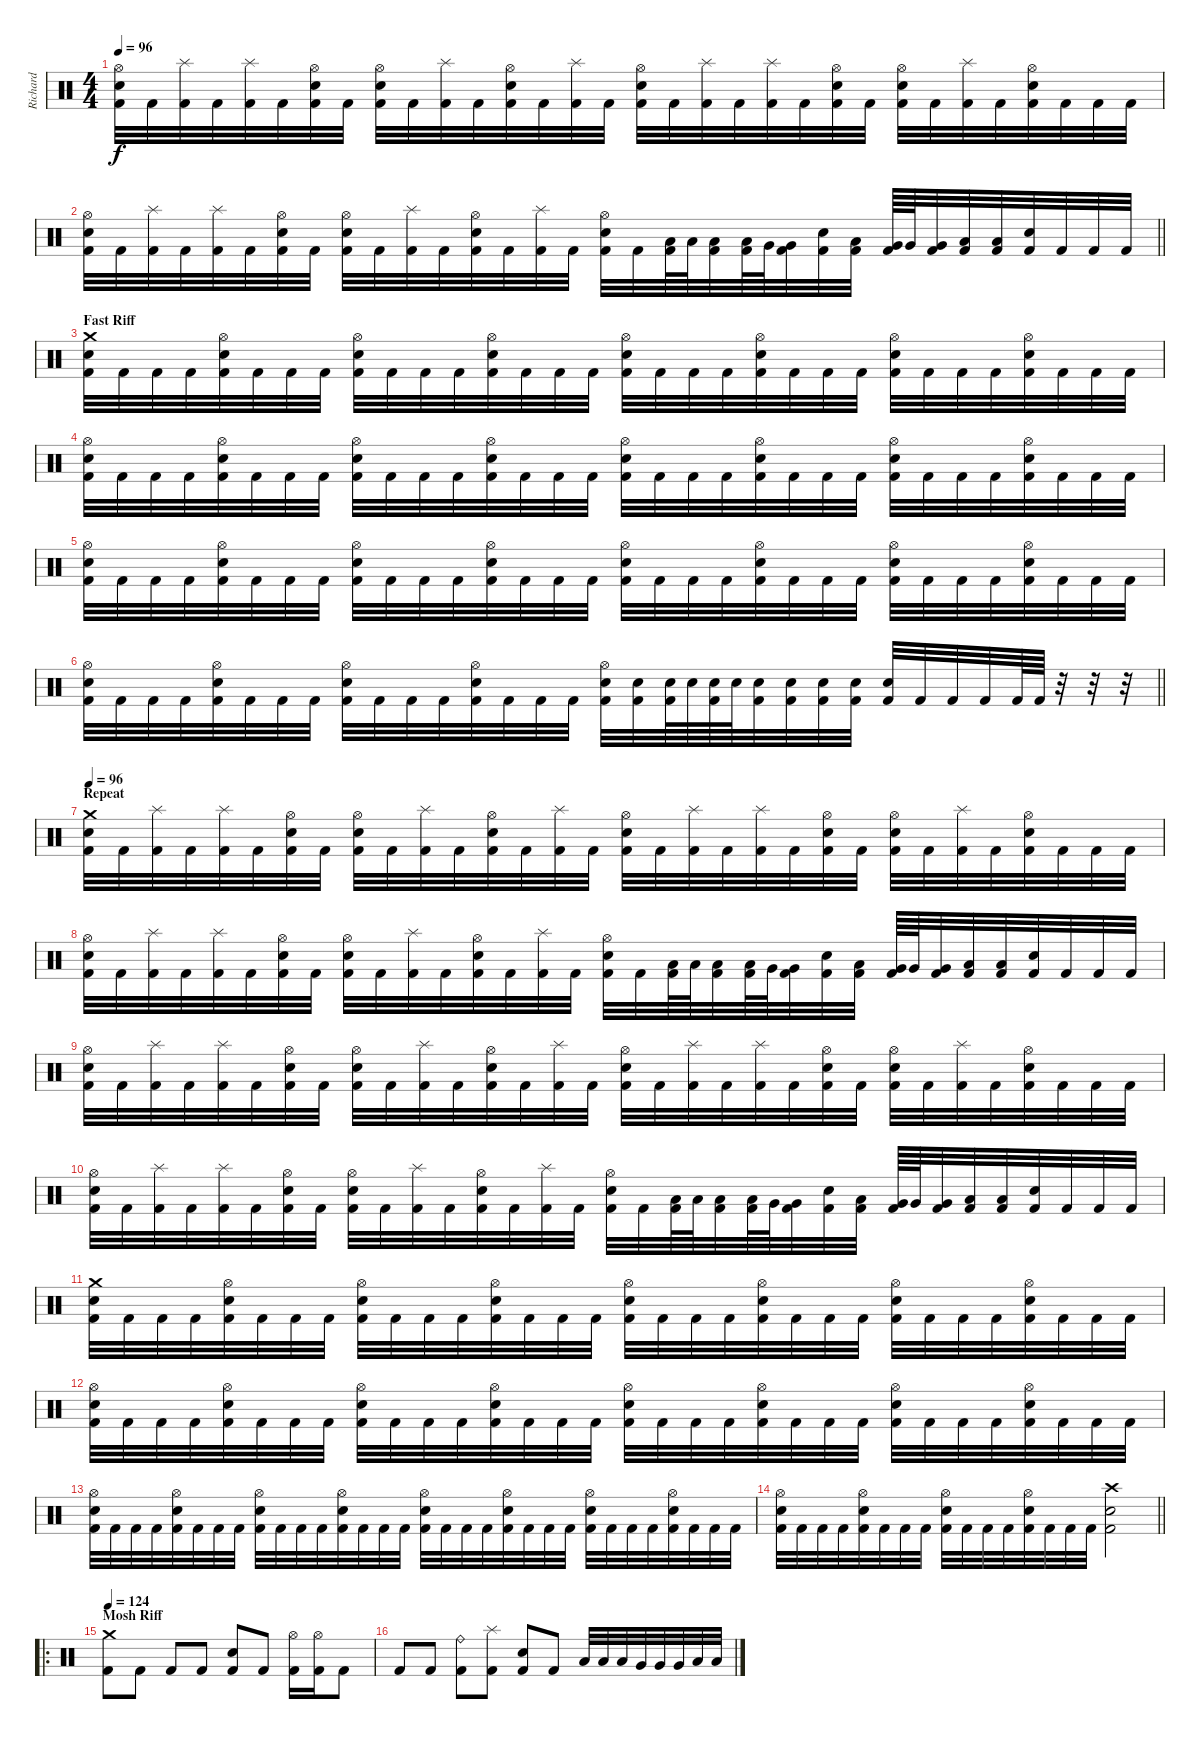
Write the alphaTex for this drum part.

\track ("Richard" "Richard") {instrument percussion}
\staff {score}
\articulation defaults
\ts (4 4)
\tempo 96
\clef neutral
\ks c
("Hi-Hat (open)" "Electric Snare (hit)" "Kick (hit) 2").32{dy f} "Kick (hit) 2".32 ("Splash (hit)" "Kick (hit) 2").32 "Kick (hit) 2".32 ("Splash (hit)" "Kick (hit) 2").32 "Kick (hit) 2".32 ("Hi-Hat (open)" "Electric Snare (hit)" "Kick (hit) 2").32 "Kick (hit) 2".32 ("Hi-Hat (open)" "Electric Snare (hit)" "Kick (hit) 2").32 "Kick (hit) 2".32 ("Splash (hit)" "Kick (hit) 2").32 "Kick (hit) 2".32 ("Hi-Hat (open)" "Electric Snare (hit)" "Kick (hit) 2").32 "Kick (hit) 2".32 ("Splash (hit)" "Kick (hit) 2").32 "Kick (hit) 2".32 ("Hi-Hat (open)" "Electric Snare (hit)" "Kick (hit) 2").32 "Kick (hit) 2".32 ("Splash (hit)" "Kick (hit) 2").32 "Kick (hit) 2".32 ("Splash (hit)" "Kick (hit) 2").32 "Kick (hit) 2".32 ("Hi-Hat (open)" "Electric Snare (hit)" "Kick (hit) 2").32 "Kick (hit) 2".32 ("Hi-Hat (open)" "Electric Snare (hit)" "Kick (hit) 2").32 "Kick (hit) 2".32 ("Splash (hit)" "Kick (hit) 2").32 "Kick (hit) 2".32 ("Hi-Hat (open)" "Electric Snare (hit)" "Kick (hit) 2").32 "Kick (hit) 2".32 "Kick (hit) 2".32 "Kick (hit) 2".32 |
\barLineRight lightlight
("Hi-Hat (open)" "Electric Snare (hit)" "Kick (hit) 2").32 "Kick (hit) 2".32 ("Splash (hit)" "Kick (hit) 2").32 "Kick (hit) 2".32 ("Splash (hit)" "Kick (hit) 2").32 "Kick (hit) 2".32 ("Hi-Hat (open)" "Electric Snare (hit)" "Kick (hit) 2").32 "Kick (hit) 2".32 ("Hi-Hat (open)" "Electric Snare (hit)" "Kick (hit) 2").32 "Kick (hit) 2".32 ("Splash (hit)" "Kick (hit) 2").32 "Kick (hit) 2".32 ("Hi-Hat (open)" "Electric Snare (hit)" "Kick (hit) 2").32 "Kick (hit) 2".32 ("Splash (hit)" "Kick (hit) 2").32 "Kick (hit) 2".32 ("Hi-Hat (open)" "Electric Snare (hit)" "Kick (hit) 2").32 "Kick (hit) 2".32 ("Low Tom (hit)" "Kick (hit) 2").64 "Low Tom (hit)".64 ("Low Tom (hit)" "Kick (hit) 2").32 ("Low Tom (hit)" "Kick (hit) 2").64 "Very Low Tom (hit)".64 ("Very Low Tom (hit)" "Kick (hit) 2").32 ("Electric Snare (hit)" "Kick (hit) 2").32 ("Low Tom (hit)" "Kick (hit) 2").32 ("Very Low Tom (hit)" "Kick (hit) 2").64 "Very Low Tom (hit)".64 ("Very Low Tom (hit)" "Kick (hit) 2").32 ("Low Floor Tom (hit)" "Kick (hit) 2").32 ("Low Floor Tom (hit)" "Kick (hit) 2").32 ("Electric Snare (hit)" "Kick (hit) 2").32 "Kick (hit) 2".32 "Kick (hit) 2".32 "Kick (hit) 2".32 |
\section ("" "Fast Riff")
("Crash medium (hit)" "Electric Snare (hit)" "Kick (hit) 2").32 "Kick (hit) 2".32 "Kick (hit) 2".32 "Kick (hit) 2".32 ("Hi-Hat (open)" "Electric Snare (hit)" "Kick (hit) 2").32 "Kick (hit) 2".32 "Kick (hit) 2".32 "Kick (hit) 2".32 ("Hi-Hat (open)" "Electric Snare (hit)" "Kick (hit) 2").32 "Kick (hit) 2".32 "Kick (hit) 2".32 "Kick (hit) 2".32 ("Hi-Hat (open)" "Electric Snare (hit)" "Kick (hit) 2").32 "Kick (hit) 2".32 "Kick (hit) 2".32 "Kick (hit) 2".32 ("Hi-Hat (open)" "Electric Snare (hit)" "Kick (hit) 2").32 "Kick (hit) 2".32 "Kick (hit) 2".32 "Kick (hit) 2".32 ("Hi-Hat (open)" "Electric Snare (hit)" "Kick (hit) 2").32 "Kick (hit) 2".32 "Kick (hit) 2".32 "Kick (hit) 2".32 ("Hi-Hat (open)" "Electric Snare (hit)" "Kick (hit) 2").32 "Kick (hit) 2".32 "Kick (hit) 2".32 "Kick (hit) 2".32 ("Hi-Hat (open)" "Electric Snare (hit)" "Kick (hit) 2").32 "Kick (hit) 2".32 "Kick (hit) 2".32 "Kick (hit) 2".32 |
("Hi-Hat (open)" "Electric Snare (hit)" "Kick (hit) 2").32 "Kick (hit) 2".32 "Kick (hit) 2".32 "Kick (hit) 2".32 ("Hi-Hat (open)" "Electric Snare (hit)" "Kick (hit) 2").32 "Kick (hit) 2".32 "Kick (hit) 2".32 "Kick (hit) 2".32 ("Hi-Hat (open)" "Electric Snare (hit)" "Kick (hit) 2").32 "Kick (hit) 2".32 "Kick (hit) 2".32 "Kick (hit) 2".32 ("Hi-Hat (open)" "Electric Snare (hit)" "Kick (hit) 2").32 "Kick (hit) 2".32 "Kick (hit) 2".32 "Kick (hit) 2".32 ("Hi-Hat (open)" "Electric Snare (hit)" "Kick (hit) 2").32 "Kick (hit) 2".32 "Kick (hit) 2".32 "Kick (hit) 2".32 ("Hi-Hat (open)" "Electric Snare (hit)" "Kick (hit) 2").32 "Kick (hit) 2".32 "Kick (hit) 2".32 "Kick (hit) 2".32 ("Hi-Hat (open)" "Electric Snare (hit)" "Kick (hit) 2").32 "Kick (hit) 2".32 "Kick (hit) 2".32 "Kick (hit) 2".32 ("Hi-Hat (open)" "Electric Snare (hit)" "Kick (hit) 2").32 "Kick (hit) 2".32 "Kick (hit) 2".32 "Kick (hit) 2".32 |
("Hi-Hat (open)" "Electric Snare (hit)" "Kick (hit) 2").32 "Kick (hit) 2".32 "Kick (hit) 2".32 "Kick (hit) 2".32 ("Hi-Hat (open)" "Electric Snare (hit)" "Kick (hit) 2").32 "Kick (hit) 2".32 "Kick (hit) 2".32 "Kick (hit) 2".32 ("Hi-Hat (open)" "Electric Snare (hit)" "Kick (hit) 2").32 "Kick (hit) 2".32 "Kick (hit) 2".32 "Kick (hit) 2".32 ("Hi-Hat (open)" "Electric Snare (hit)" "Kick (hit) 2").32 "Kick (hit) 2".32 "Kick (hit) 2".32 "Kick (hit) 2".32 ("Hi-Hat (open)" "Electric Snare (hit)" "Kick (hit) 2").32 "Kick (hit) 2".32 "Kick (hit) 2".32 "Kick (hit) 2".32 ("Hi-Hat (open)" "Electric Snare (hit)" "Kick (hit) 2").32 "Kick (hit) 2".32 "Kick (hit) 2".32 "Kick (hit) 2".32 ("Hi-Hat (open)" "Electric Snare (hit)" "Kick (hit) 2").32 "Kick (hit) 2".32 "Kick (hit) 2".32 "Kick (hit) 2".32 ("Hi-Hat (open)" "Electric Snare (hit)" "Kick (hit) 2").32 "Kick (hit) 2".32 "Kick (hit) 2".32 "Kick (hit) 2".32 |
\barLineRight lightlight
("Hi-Hat (open)" "Electric Snare (hit)" "Kick (hit) 2").32 "Kick (hit) 2".32 "Kick (hit) 2".32 "Kick (hit) 2".32 ("Hi-Hat (open)" "Electric Snare (hit)" "Kick (hit) 2").32 "Kick (hit) 2".32 "Kick (hit) 2".32 "Kick (hit) 2".32 ("Hi-Hat (open)" "Electric Snare (hit)" "Kick (hit) 2").32 "Kick (hit) 2".32 "Kick (hit) 2".32 "Kick (hit) 2".32 ("Hi-Hat (open)" "Electric Snare (hit)" "Kick (hit) 2").32 "Kick (hit) 2".32 "Kick (hit) 2".32 "Kick (hit) 2".32 ("Hi-Hat (open)" "Electric Snare (hit)" "Kick (hit) 2").32 ("Electric Snare (hit)" "Kick (hit) 2").32 ("Electric Snare (hit)" "Kick (hit) 2").64 "Electric Snare (hit)".64 ("Electric Snare (hit)" "Kick (hit) 2").64 "Electric Snare (hit)".64 ("Electric Snare (hit)" "Kick (hit) 2").32 ("Electric Snare (hit)" "Kick (hit) 2").32 ("Electric Snare (hit)" "Kick (hit) 2").32 ("Electric Snare (hit)" "Kick (hit) 2").32 ("Electric Snare (hit)" "Kick (hit) 2").32 "Kick (hit) 2".32 "Kick (hit) 2".32 "Kick (hit) 2".32 "Kick (hit) 2".64 "Kick (hit) 2".64 r.32 r.32 r.32 |
\section ("" "Repeat")
\tempo 96
("Crash medium (hit)" "Electric Snare (hit)" "Kick (hit) 2").32 "Kick (hit) 2".32 ("Splash (hit)" "Kick (hit) 2").32 "Kick (hit) 2".32 ("Splash (hit)" "Kick (hit) 2").32 "Kick (hit) 2".32 ("Hi-Hat (open)" "Electric Snare (hit)" "Kick (hit) 2").32 "Kick (hit) 2".32 ("Hi-Hat (open)" "Electric Snare (hit)" "Kick (hit) 2").32 "Kick (hit) 2".32 ("Splash (hit)" "Kick (hit) 2").32 "Kick (hit) 2".32 ("Hi-Hat (open)" "Electric Snare (hit)" "Kick (hit) 2").32 "Kick (hit) 2".32 ("Splash (hit)" "Kick (hit) 2").32 "Kick (hit) 2".32 ("Hi-Hat (open)" "Electric Snare (hit)" "Kick (hit) 2").32 "Kick (hit) 2".32 ("Splash (hit)" "Kick (hit) 2").32 "Kick (hit) 2".32 ("Splash (hit)" "Kick (hit) 2").32 "Kick (hit) 2".32 ("Hi-Hat (open)" "Electric Snare (hit)" "Kick (hit) 2").32 "Kick (hit) 2".32 ("Hi-Hat (open)" "Electric Snare (hit)" "Kick (hit) 2").32 "Kick (hit) 2".32 ("Splash (hit)" "Kick (hit) 2").32 "Kick (hit) 2".32 ("Hi-Hat (open)" "Electric Snare (hit)" "Kick (hit) 2").32 "Kick (hit) 2".32 "Kick (hit) 2".32 "Kick (hit) 2".32 |
("Hi-Hat (open)" "Electric Snare (hit)" "Kick (hit) 2").32 "Kick (hit) 2".32 ("Splash (hit)" "Kick (hit) 2").32 "Kick (hit) 2".32 ("Splash (hit)" "Kick (hit) 2").32 "Kick (hit) 2".32 ("Hi-Hat (open)" "Electric Snare (hit)" "Kick (hit) 2").32 "Kick (hit) 2".32 ("Hi-Hat (open)" "Electric Snare (hit)" "Kick (hit) 2").32 "Kick (hit) 2".32 ("Splash (hit)" "Kick (hit) 2").32 "Kick (hit) 2".32 ("Hi-Hat (open)" "Electric Snare (hit)" "Kick (hit) 2").32 "Kick (hit) 2".32 ("Splash (hit)" "Kick (hit) 2").32 "Kick (hit) 2".32 ("Hi-Hat (open)" "Electric Snare (hit)" "Kick (hit) 2").32 "Kick (hit) 2".32 ("Low Tom (hit)" "Kick (hit) 2").64 "Low Tom (hit)".64 ("Low Tom (hit)" "Kick (hit) 2").32 ("Low Tom (hit)" "Kick (hit) 2").64 "Very Low Tom (hit)".64 ("Very Low Tom (hit)" "Kick (hit) 2").32 ("Electric Snare (hit)" "Kick (hit) 2").32 ("Low Tom (hit)" "Kick (hit) 2").32 ("Very Low Tom (hit)" "Kick (hit) 2").64 "Very Low Tom (hit)".64 ("Very Low Tom (hit)" "Kick (hit) 2").32 ("Low Floor Tom (hit)" "Kick (hit) 2").32 ("Low Floor Tom (hit)" "Kick (hit) 2").32 ("Electric Snare (hit)" "Kick (hit) 2").32 "Kick (hit) 2".32 "Kick (hit) 2".32 "Kick (hit) 2".32 |
("Hi-Hat (open)" "Electric Snare (hit)" "Kick (hit) 2").32 "Kick (hit) 2".32 ("Splash (hit)" "Kick (hit) 2").32 "Kick (hit) 2".32 ("Splash (hit)" "Kick (hit) 2").32 "Kick (hit) 2".32 ("Hi-Hat (open)" "Electric Snare (hit)" "Kick (hit) 2").32 "Kick (hit) 2".32 ("Hi-Hat (open)" "Electric Snare (hit)" "Kick (hit) 2").32 "Kick (hit) 2".32 ("Splash (hit)" "Kick (hit) 2").32 "Kick (hit) 2".32 ("Hi-Hat (open)" "Electric Snare (hit)" "Kick (hit) 2").32 "Kick (hit) 2".32 ("Splash (hit)" "Kick (hit) 2").32 "Kick (hit) 2".32 ("Hi-Hat (open)" "Electric Snare (hit)" "Kick (hit) 2").32 "Kick (hit) 2".32 ("Splash (hit)" "Kick (hit) 2").32 "Kick (hit) 2".32 ("Splash (hit)" "Kick (hit) 2").32 "Kick (hit) 2".32 ("Hi-Hat (open)" "Electric Snare (hit)" "Kick (hit) 2").32 "Kick (hit) 2".32 ("Hi-Hat (open)" "Electric Snare (hit)" "Kick (hit) 2").32 "Kick (hit) 2".32 ("Splash (hit)" "Kick (hit) 2").32 "Kick (hit) 2".32 ("Hi-Hat (open)" "Electric Snare (hit)" "Kick (hit) 2").32 "Kick (hit) 2".32 "Kick (hit) 2".32 "Kick (hit) 2".32 |
("Hi-Hat (open)" "Electric Snare (hit)" "Kick (hit) 2").32 "Kick (hit) 2".32 ("Splash (hit)" "Kick (hit) 2").32 "Kick (hit) 2".32 ("Splash (hit)" "Kick (hit) 2").32 "Kick (hit) 2".32 ("Hi-Hat (open)" "Electric Snare (hit)" "Kick (hit) 2").32 "Kick (hit) 2".32 ("Hi-Hat (open)" "Electric Snare (hit)" "Kick (hit) 2").32 "Kick (hit) 2".32 ("Splash (hit)" "Kick (hit) 2").32 "Kick (hit) 2".32 ("Hi-Hat (open)" "Electric Snare (hit)" "Kick (hit) 2").32 "Kick (hit) 2".32 ("Splash (hit)" "Kick (hit) 2").32 "Kick (hit) 2".32 ("Hi-Hat (open)" "Electric Snare (hit)" "Kick (hit) 2").32 "Kick (hit) 2".32 ("Low Tom (hit)" "Kick (hit) 2").64 "Low Tom (hit)".64 ("Low Tom (hit)" "Kick (hit) 2").32 ("Low Tom (hit)" "Kick (hit) 2").64 "Very Low Tom (hit)".64 ("Very Low Tom (hit)" "Kick (hit) 2").32 ("Electric Snare (hit)" "Kick (hit) 2").32 ("Low Tom (hit)" "Kick (hit) 2").32 ("Very Low Tom (hit)" "Kick (hit) 2").64 "Very Low Tom (hit)".64 ("Very Low Tom (hit)" "Kick (hit) 2").32 ("Low Floor Tom (hit)" "Kick (hit) 2").32 ("Low Floor Tom (hit)" "Kick (hit) 2").32 ("Electric Snare (hit)" "Kick (hit) 2").32 "Kick (hit) 2".32 "Kick (hit) 2".32 "Kick (hit) 2".32 |
("Crash medium (hit)" "Electric Snare (hit)" "Kick (hit) 2").32 "Kick (hit) 2".32 "Kick (hit) 2".32 "Kick (hit) 2".32 ("Hi-Hat (open)" "Electric Snare (hit)" "Kick (hit) 2").32 "Kick (hit) 2".32 "Kick (hit) 2".32 "Kick (hit) 2".32 ("Hi-Hat (open)" "Electric Snare (hit)" "Kick (hit) 2").32 "Kick (hit) 2".32 "Kick (hit) 2".32 "Kick (hit) 2".32 ("Hi-Hat (open)" "Electric Snare (hit)" "Kick (hit) 2").32 "Kick (hit) 2".32 "Kick (hit) 2".32 "Kick (hit) 2".32 ("Hi-Hat (open)" "Electric Snare (hit)" "Kick (hit) 2").32 "Kick (hit) 2".32 "Kick (hit) 2".32 "Kick (hit) 2".32 ("Hi-Hat (open)" "Electric Snare (hit)" "Kick (hit) 2").32 "Kick (hit) 2".32 "Kick (hit) 2".32 "Kick (hit) 2".32 ("Hi-Hat (open)" "Electric Snare (hit)" "Kick (hit) 2").32 "Kick (hit) 2".32 "Kick (hit) 2".32 "Kick (hit) 2".32 ("Hi-Hat (open)" "Electric Snare (hit)" "Kick (hit) 2").32 "Kick (hit) 2".32 "Kick (hit) 2".32 "Kick (hit) 2".32 |
("Hi-Hat (open)" "Electric Snare (hit)" "Kick (hit) 2").32 "Kick (hit) 2".32 "Kick (hit) 2".32 "Kick (hit) 2".32 ("Hi-Hat (open)" "Electric Snare (hit)" "Kick (hit) 2").32 "Kick (hit) 2".32 "Kick (hit) 2".32 "Kick (hit) 2".32 ("Hi-Hat (open)" "Electric Snare (hit)" "Kick (hit) 2").32 "Kick (hit) 2".32 "Kick (hit) 2".32 "Kick (hit) 2".32 ("Hi-Hat (open)" "Electric Snare (hit)" "Kick (hit) 2").32 "Kick (hit) 2".32 "Kick (hit) 2".32 "Kick (hit) 2".32 ("Hi-Hat (open)" "Electric Snare (hit)" "Kick (hit) 2").32 "Kick (hit) 2".32 "Kick (hit) 2".32 "Kick (hit) 2".32 ("Hi-Hat (open)" "Electric Snare (hit)" "Kick (hit) 2").32 "Kick (hit) 2".32 "Kick (hit) 2".32 "Kick (hit) 2".32 ("Hi-Hat (open)" "Electric Snare (hit)" "Kick (hit) 2").32 "Kick (hit) 2".32 "Kick (hit) 2".32 "Kick (hit) 2".32 ("Hi-Hat (open)" "Electric Snare (hit)" "Kick (hit) 2").32 "Kick (hit) 2".32 "Kick (hit) 2".32 "Kick (hit) 2".32 |
("Hi-Hat (open)" "Electric Snare (hit)" "Kick (hit) 2").32 "Kick (hit) 2".32 "Kick (hit) 2".32 "Kick (hit) 2".32 ("Hi-Hat (open)" "Electric Snare (hit)" "Kick (hit) 2").32 "Kick (hit) 2".32 "Kick (hit) 2".32 "Kick (hit) 2".32 ("Hi-Hat (open)" "Electric Snare (hit)" "Kick (hit) 2").32 "Kick (hit) 2".32 "Kick (hit) 2".32 "Kick (hit) 2".32 ("Hi-Hat (open)" "Electric Snare (hit)" "Kick (hit) 2").32 "Kick (hit) 2".32 "Kick (hit) 2".32 "Kick (hit) 2".32 ("Hi-Hat (open)" "Electric Snare (hit)" "Kick (hit) 2").32 "Kick (hit) 2".32 "Kick (hit) 2".32 "Kick (hit) 2".32 ("Hi-Hat (open)" "Electric Snare (hit)" "Kick (hit) 2").32 "Kick (hit) 2".32 "Kick (hit) 2".32 "Kick (hit) 2".32 ("Hi-Hat (open)" "Electric Snare (hit)" "Kick (hit) 2").32 "Kick (hit) 2".32 "Kick (hit) 2".32 "Kick (hit) 2".32 ("Hi-Hat (open)" "Electric Snare (hit)" "Kick (hit) 2").32 "Kick (hit) 2".32 "Kick (hit) 2".32 "Kick (hit) 2".32 |
\barLineRight lightlight
("Hi-Hat (open)" "Electric Snare (hit)" "Kick (hit) 2").32 "Kick (hit) 2".32 "Kick (hit) 2".32 "Kick (hit) 2".32 ("Hi-Hat (open)" "Electric Snare (hit)" "Kick (hit) 2").32 "Kick (hit) 2".32 "Kick (hit) 2".32 "Kick (hit) 2".32 ("Hi-Hat (open)" "Electric Snare (hit)" "Kick (hit) 2").32 "Kick (hit) 2".32 "Kick (hit) 2".32 "Kick (hit) 2".32 ("Hi-Hat (open)" "Electric Snare (hit)" "Kick (hit) 2").32 "Kick (hit) 2".32 "Kick (hit) 2".32 "Kick (hit) 2".32 ("Crash high (hit)" "Electric Snare (hit)" "Kick (hit) 2").2 |
\ro
\section ("" "Mosh Riff")
\tempo 124
("Crash medium (hit)" "Kick (hit) 2").8 "Kick (hit) 2".8 "Kick (hit) 2".8 "Kick (hit) 2".8 ("Electric Snare (hit)" "Kick (hit) 2").8 "Kick (hit) 2".8 ("Hi-Hat (open)" "Kick (hit) 2").16 ("Hi-Hat (open)" "Kick (hit) 2").16 "Kick (hit) 2".8 |
"Kick (hit) 2".8 "Kick (hit) 2".8 ("Ride (bell)" "Kick (hit) 2").8 ("Splash (hit)" "Kick (hit) 2").8 ("Electric Snare (hit)" "Kick (hit) 2").8 "Kick (hit) 2".8 "Low Tom (hit)".32 "Low Tom (hit)".32 "Low Tom (hit)".32 "Very Low Tom (hit)".32 "Very Low Tom (hit)".32 "Very Low Tom (hit)".32 "Low Floor Tom (hit)".32 "Low Floor Tom (hit)".32
